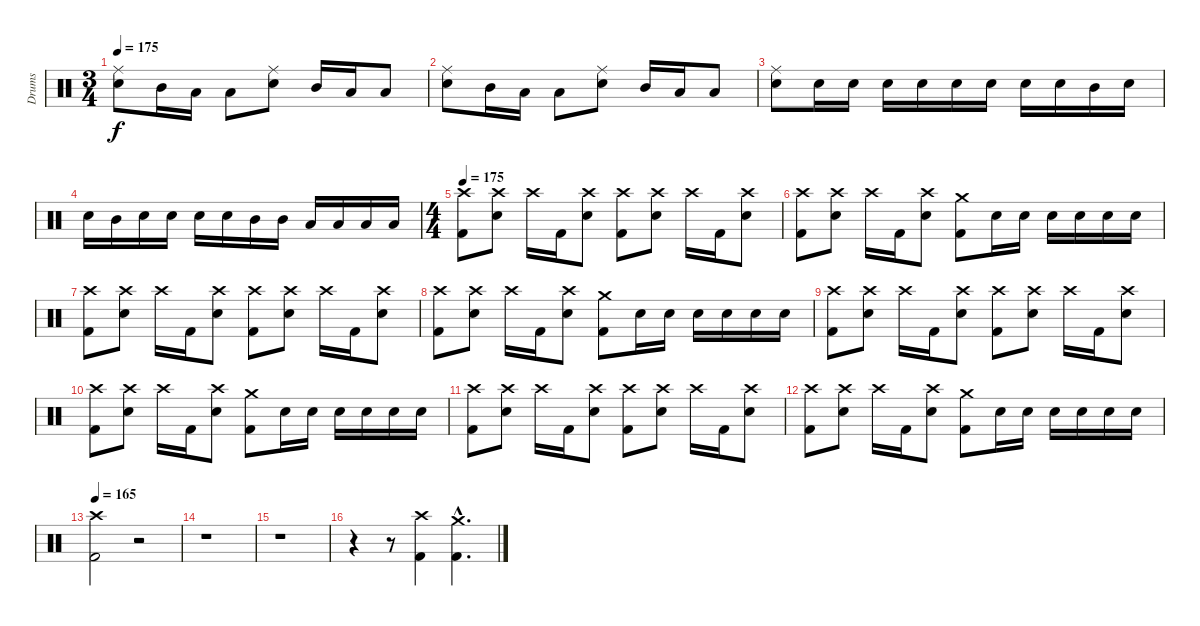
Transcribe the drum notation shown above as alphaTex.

\track ("Drums" "Drums") {instrument percussion}
\staff {score}
\articulation defaults
\ts (3 4)
\tempo 175
\tempo 200
\tempo 175
\clef neutral
\ks c
("Ride (middle)" "Electric Snare (hit)").8{dy f} "Mid Tom (hit)".16 "Low Tom (hit)".16 "Low Floor Tom (hit)".8 ("Ride (middle)" "Electric Snare (hit)").8 "Mid Tom (hit)".16 "Low Tom (hit)".16 "Low Floor Tom (hit)".8 |
("Ride (middle)" "Electric Snare (hit)").8 "Mid Tom (hit)".16 "Low Tom (hit)".16 "Low Floor Tom (hit)".8 ("Ride (middle)" "Electric Snare (hit)").8 "Mid Tom (hit)".16 "Low Tom (hit)".16 "Low Floor Tom (hit)".8 |
("Ride (middle)" "Electric Snare (hit)").8 "Electric Snare (hit)".16 "Electric Snare (hit)".16 "Electric Snare (hit)".16 "Electric Snare (hit)".16 "Electric Snare (hit)".16 "Electric Snare (hit)".16 "Electric Snare (hit)".16 "Electric Snare (hit)".16 "Mid Tom (hit)".16 "Electric Snare (hit)".16 |
"Electric Snare (hit)".16 "Mid Tom (hit)".16 "Electric Snare (hit)".16 "Electric Snare (hit)".16 "Electric Snare (hit)".16 "Electric Snare (hit)".16 "Mid Tom (hit)".16 "Mid Tom (hit)".16 "Low Tom (hit)".16 "Low Tom (hit)".16 "Low Floor Tom (hit)".16 "Low Floor Tom (hit)".16 |
\ts (4 4)
\tempo 175
("Crash high (hit)" "Kick (hit) 2").8 ("Crash high (hit)" "Electric Snare (hit)").8 "Crash high (hit)".16 "Kick (hit) 2".16 ("Crash high (hit)" "Electric Snare (hit)").8 ("Crash high (hit)" "Kick (hit) 2").8 ("Crash high (hit)" "Electric Snare (hit)").8 "Crash high (hit)".16 "Kick (hit) 2".16 ("Crash high (hit)" "Electric Snare (hit)").8 |
("Crash high (hit)" "Kick (hit) 2").8 ("Crash high (hit)" "Electric Snare (hit)").8 "Crash high (hit)".16 "Kick (hit) 2".16 ("Crash high (hit)" "Electric Snare (hit)").8 ("Crash medium (hit)" "Kick (hit) 2").8 "Electric Snare (hit)".16 "Electric Snare (hit)".16 "Electric Snare (hit)".16 "Electric Snare (hit)".16 "Electric Snare (hit)".16 "Electric Snare (hit)".16 |
("Crash high (hit)" "Kick (hit) 2").8 ("Crash high (hit)" "Electric Snare (hit)").8 "Crash high (hit)".16 "Kick (hit) 2".16 ("Crash high (hit)" "Electric Snare (hit)").8 ("Crash high (hit)" "Kick (hit) 2").8 ("Crash high (hit)" "Electric Snare (hit)").8 "Crash high (hit)".16 "Kick (hit) 2".16 ("Crash high (hit)" "Electric Snare (hit)").8 |
("Crash high (hit)" "Kick (hit) 2").8 ("Crash high (hit)" "Electric Snare (hit)").8 "Crash high (hit)".16 "Kick (hit) 2".16 ("Crash high (hit)" "Electric Snare (hit)").8 ("Crash medium (hit)" "Kick (hit) 2").8 "Electric Snare (hit)".16 "Electric Snare (hit)".16 "Electric Snare (hit)".16 "Electric Snare (hit)".16 "Electric Snare (hit)".16 "Electric Snare (hit)".16 |
("Crash high (hit)" "Kick (hit) 2").8 ("Crash high (hit)" "Electric Snare (hit)").8 "Crash high (hit)".16 "Kick (hit) 2".16 ("Crash high (hit)" "Electric Snare (hit)").8 ("Crash high (hit)" "Kick (hit) 2").8 ("Crash high (hit)" "Electric Snare (hit)").8 "Crash high (hit)".16 "Kick (hit) 2".16 ("Crash high (hit)" "Electric Snare (hit)").8 |
("Crash high (hit)" "Kick (hit) 2").8 ("Crash high (hit)" "Electric Snare (hit)").8 "Crash high (hit)".16 "Kick (hit) 2".16 ("Crash high (hit)" "Electric Snare (hit)").8 ("Crash medium (hit)" "Kick (hit) 2").8 "Electric Snare (hit)".16 "Electric Snare (hit)".16 "Electric Snare (hit)".16 "Electric Snare (hit)".16 "Electric Snare (hit)".16 "Electric Snare (hit)".16 |
("Crash high (hit)" "Kick (hit) 2").8 ("Crash high (hit)" "Electric Snare (hit)").8 "Crash high (hit)".16 "Kick (hit) 2".16 ("Crash high (hit)" "Electric Snare (hit)").8 ("Crash high (hit)" "Kick (hit) 2").8 ("Crash high (hit)" "Electric Snare (hit)").8 "Crash high (hit)".16 "Kick (hit) 2".16 ("Crash high (hit)" "Electric Snare (hit)").8 |
("Crash high (hit)" "Kick (hit) 2").8 ("Crash high (hit)" "Electric Snare (hit)").8 "Crash high (hit)".16 "Kick (hit) 2".16 ("Crash high (hit)" "Electric Snare (hit)").8 ("Crash medium (hit)" "Kick (hit) 2").8 "Electric Snare (hit)".16 "Electric Snare (hit)".16 "Electric Snare (hit)".16 "Electric Snare (hit)".16 "Electric Snare (hit)".16 "Electric Snare (hit)".16 |
\tempo 165
("Crash high (hit)" "Kick (hit) 2").2 r.2 |
r.1 |
r.1 |
r.4 r.8 ("Crash high (hit)" "Kick (hit) 2").4 ("Crash medium (hit)"{hac} "Kick (hit) 2"{hac}).4{d}
